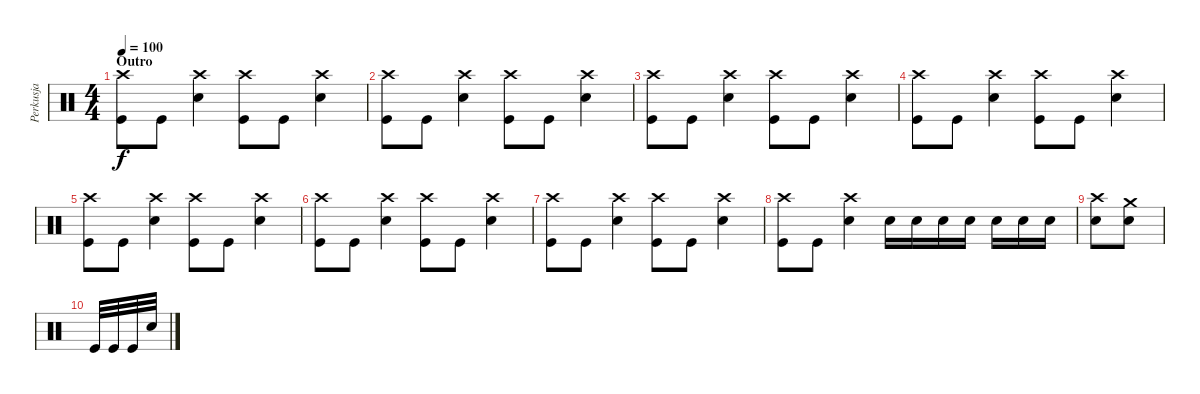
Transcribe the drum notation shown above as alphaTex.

\track ("Perkusja" "Perkusja") {instrument percussion}
\staff {score}
\articulation defaults
\ts (4 4)
\section ("" "Outro")
\tempo 100
\clef neutral
\ks c
("Crash high (hit)" "Kick (hit)").8{dy f} "Kick (hit)".8 ("Crash high (hit)" "Snare (hit) 2").4 ("Crash high (hit)" "Kick (hit)").8 "Kick (hit)".8 ("Crash high (hit)" "Snare (hit) 2").4 |
("Crash high (hit)" "Kick (hit)").8 "Kick (hit)".8 ("Crash high (hit)" "Snare (hit) 2").4 ("Crash high (hit)" "Kick (hit)").8 "Kick (hit)".8 ("Crash high (hit)" "Snare (hit) 2").4 |
("Crash high (hit)" "Kick (hit)").8 "Kick (hit)".8 ("Crash high (hit)" "Snare (hit) 2").4 ("Crash high (hit)" "Kick (hit)").8 "Kick (hit)".8 ("Crash high (hit)" "Snare (hit) 2").4 |
("Crash high (hit)" "Kick (hit)").8 "Kick (hit)".8 ("Crash high (hit)" "Snare (hit) 2").4 ("Crash high (hit)" "Kick (hit)").8 "Kick (hit)".8 ("Crash high (hit)" "Snare (hit) 2").4 |
("Crash high (hit)" "Kick (hit)").8 "Kick (hit)".8 ("Crash high (hit)" "Snare (hit) 2").4 ("Crash high (hit)" "Kick (hit)").8 "Kick (hit)".8 ("Crash high (hit)" "Snare (hit) 2").4 |
("Crash high (hit)" "Kick (hit)").8 "Kick (hit)".8 ("Crash high (hit)" "Snare (hit) 2").4 ("Crash high (hit)" "Kick (hit)").8 "Kick (hit)".8 ("Crash high (hit)" "Snare (hit) 2").4 |
("Crash high (hit)" "Kick (hit)").8 "Kick (hit)".8 ("Crash high (hit)" "Snare (hit) 2").4 ("Crash high (hit)" "Kick (hit)").8 "Kick (hit)".8 ("Crash high (hit)" "Snare (hit) 2").4 |
("Kick (hit)" "Crash high (hit)").8 "Kick (hit)".8 ("Crash high (hit)" "Snare (hit) 2").4 "Snare (hit) 2".16 "Snare (hit) 2".16 "Snare (hit) 2".16 "Snare (hit) 2".16 "Snare (hit) 2".16 "Snare (hit) 2".16 "Snare (hit) 2".16 |
("Snare (hit) 2" "Crash high (hit)").8 ("Snare (hit) 2" "Crash medium (hit)").8 |
"Kick (hit)".32 "Kick (hit)".32 "Kick (hit)".32 "Snare (hit) 2".32
